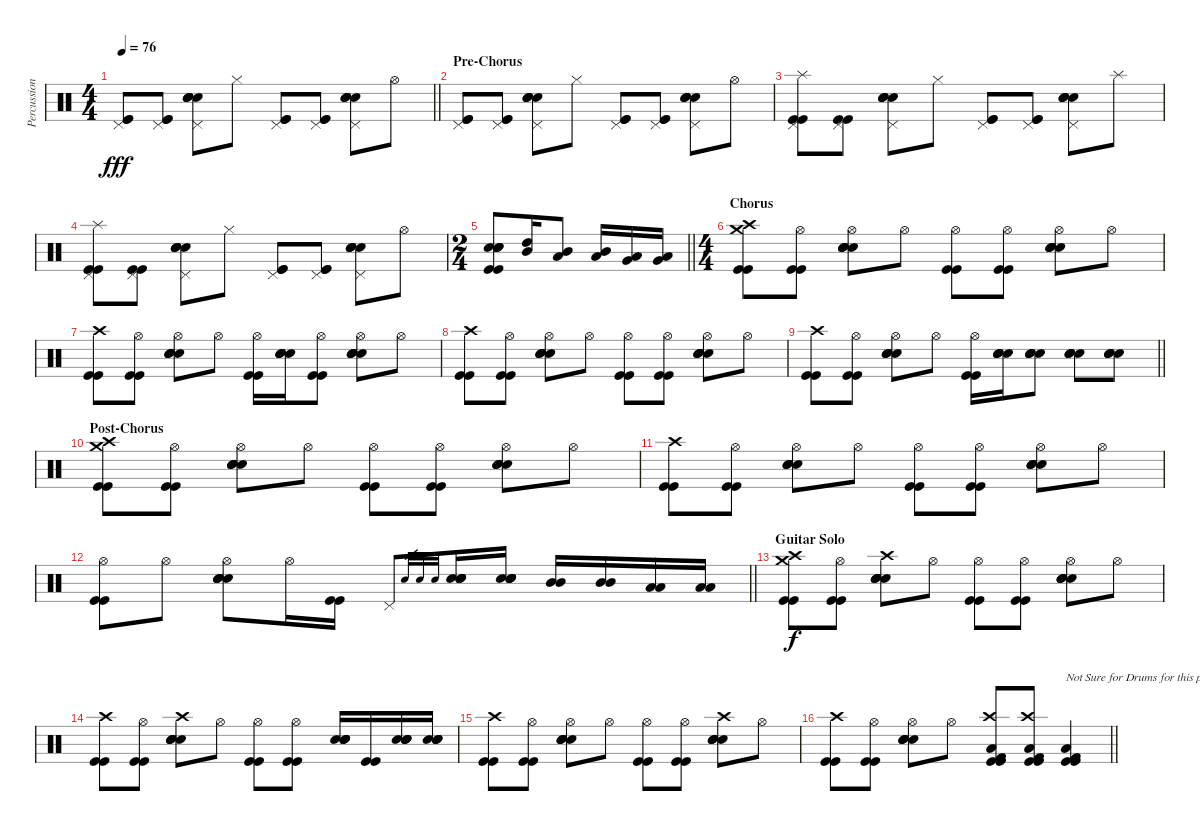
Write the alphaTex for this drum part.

\track ("Percussion" "Percussion") {instrument percussion}
\staff {score}
\articulation defaults
\ts (4 4)
\tempo 76
\clef neutral
\barLineRight lightlight
\ks c
("Pedal Hi-Hat (hit)" "Kick (hit)" "Kick (hit)").8{dy fff} ("Pedal Hi-Hat (hit)" "Kick (hit)" "Kick (hit)").8 ("Pedal Hi-Hat (hit)" "Electric Snare (hit)" "Snare (hit) 2" "Snare (hit) 2" "Electric Snare (hit)").8 "Hi-Hat (closed)".8 ("Pedal Hi-Hat (hit)" "Kick (hit)" "Kick (hit)").8 ("Pedal Hi-Hat (hit)" "Kick (hit)" "Kick (hit)").8 ("Pedal Hi-Hat (hit)" "Electric Snare (hit)" "Snare (hit) 2" "Snare (hit) 2" "Electric Snare (hit)").8 "Hi-Hat (open)".8 |
\section ("" "Pre-Chorus")
("Pedal Hi-Hat (hit)" "Kick (hit)" "Kick (hit)").8 ("Pedal Hi-Hat (hit)" "Kick (hit)" "Kick (hit)").8 ("Pedal Hi-Hat (hit)" "Electric Snare (hit)" "Snare (hit) 2" "Snare (hit) 2" "Electric Snare (hit)").8 "Hi-Hat (closed)".8 ("Pedal Hi-Hat (hit)" "Kick (hit)" "Kick (hit)").8 ("Pedal Hi-Hat (hit)" "Kick (hit)" "Kick (hit)").8 ("Pedal Hi-Hat (hit)" "Electric Snare (hit)" "Snare (hit) 2" "Snare (hit) 2" "Electric Snare (hit)").8 "Hi-Hat (open)".8 |
("Pedal Hi-Hat (hit)" "Splash (hit)" "Kick (hit)" "Kick (hit)").8 ("Pedal Hi-Hat (hit)" "Kick (hit)" "Kick (hit)").8 ("Pedal Hi-Hat (hit)" "Electric Snare (hit)" "Snare (hit) 2" "Snare (hit) 2" "Electric Snare (hit)").8 "Hi-Hat (closed)".8 ("Pedal Hi-Hat (hit)" "Kick (hit)" "Kick (hit)").8 ("Pedal Hi-Hat (hit)" "Kick (hit)" "Kick (hit)").8 ("Pedal Hi-Hat (hit)" "Electric Snare (hit)" "Snare (hit) 2" "Snare (hit) 2" "Electric Snare (hit)").8 "Splash (hit)".8 |
("Pedal Hi-Hat (hit)" "Splash (hit)" "Kick (hit)" "Kick (hit)").8 ("Pedal Hi-Hat (hit)" "Kick (hit)" "Kick (hit)").8 ("Pedal Hi-Hat (hit)" "Electric Snare (hit)" "Snare (hit) 2" "Snare (hit) 2" "Electric Snare (hit)").8 "Hi-Hat (closed)".8 ("Pedal Hi-Hat (hit)" "Kick (hit)" "Kick (hit)").8 ("Pedal Hi-Hat (hit)" "Kick (hit)" "Kick (hit)").8 ("Pedal Hi-Hat (hit)" "Electric Snare (hit)" "Snare (hit) 2" "Snare (hit) 2" "Electric Snare (hit)").8 "Hi-Hat (open)".8 |
\ts (2 4)
\barLineRight lightlight
("Kick (hit)" "Electric Snare (hit)" "Snare (hit) 2" "Snare (hit) 2" "Electric Snare (hit)" "Kick (hit)").8 ("High Tom (hit)" "Mid Tom (hit)").16 ("Mid Tom (hit)" "Low Tom (hit)").8 ("Mid Tom (hit)" "Low Tom (hit)").16 ("Low Tom (hit)" "Very Low Tom (hit)").16 ("Very Low Tom (hit)" "Low Floor Tom (hit)").16 |
\ts (4 4)
\section ("" "Chorus")
("Crash high (hit)" "Crash medium (hit)" "Kick (hit)" "Kick (hit)").8 ("Hi-Hat (open)" "Kick (hit)" "Kick (hit)").8 ("Hi-Hat (open)" "Electric Snare (hit)" "Snare (hit) 2" "Snare (hit) 2" "Electric Snare (hit)").8 "Hi-Hat (open)".8 ("Hi-Hat (open)" "Kick (hit)" "Kick (hit)").8 ("Hi-Hat (open)" "Kick (hit)" "Kick (hit)").8 ("Hi-Hat (open)" "Electric Snare (hit)" "Snare (hit) 2" "Snare (hit) 2" "Electric Snare (hit)").8 "Hi-Hat (open)".8 |
("Crash high (hit)" "Kick (hit)" "Kick (hit)").8 ("Hi-Hat (open)" "Kick (hit)" "Kick (hit)").8 ("Hi-Hat (open)" "Electric Snare (hit)" "Snare (hit) 2" "Snare (hit) 2" "Electric Snare (hit)").8 "Hi-Hat (open)".8 ("Hi-Hat (open)" "Kick (hit)" "Kick (hit)").16 ("Electric Snare (hit)" "Snare (hit) 2" "Snare (hit) 2" "Electric Snare (hit)").16 ("Hi-Hat (open)" "Kick (hit)" "Kick (hit)").8 ("Hi-Hat (open)" "Electric Snare (hit)" "Snare (hit) 2" "Snare (hit) 2" "Electric Snare (hit)").8 "Hi-Hat (open)".8 |
("Crash high (hit)" "Kick (hit)" "Kick (hit)").8 ("Hi-Hat (open)" "Kick (hit)" "Kick (hit)").8 ("Hi-Hat (open)" "Electric Snare (hit)" "Snare (hit) 2" "Snare (hit) 2" "Electric Snare (hit)").8 "Hi-Hat (open)".8 ("Hi-Hat (open)" "Kick (hit)" "Kick (hit)").8 ("Hi-Hat (open)" "Kick (hit)" "Kick (hit)").8 ("Hi-Hat (open)" "Electric Snare (hit)" "Snare (hit) 2" "Snare (hit) 2" "Electric Snare (hit)").8 "Hi-Hat (open)".8 |
\barLineRight lightlight
("Crash high (hit)" "Kick (hit)" "Kick (hit)").8 ("Hi-Hat (open)" "Kick (hit)" "Kick (hit)").8 ("Hi-Hat (open)" "Electric Snare (hit)" "Snare (hit) 2" "Snare (hit) 2" "Electric Snare (hit)").8 "Hi-Hat (open)".8 ("Hi-Hat (open)" "Kick (hit)" "Kick (hit)").16 ("Electric Snare (hit)" "Snare (hit) 2" "Snare (hit) 2" "Electric Snare (hit)").16 ("Electric Snare (hit)" "Snare (hit) 2" "Snare (hit) 2" "Electric Snare (hit)").8 ("Electric Snare (hit)" "Snare (hit) 2" "Snare (hit) 2" "Electric Snare (hit)").8 ("Electric Snare (hit)" "Snare (hit) 2" "Snare (hit) 2" "Electric Snare (hit)").8 |
\section ("" "Post-Chorus")
("Crash high (hit)" "Crash medium (hit)" "Kick (hit)" "Kick (hit)").8 ("Hi-Hat (open)" "Kick (hit)" "Kick (hit)").8 ("Hi-Hat (open)" "Electric Snare (hit)" "Snare (hit) 2" "Snare (hit) 2" "Electric Snare (hit)").8 "Hi-Hat (open)".8 ("Hi-Hat (open)" "Kick (hit)" "Kick (hit)").8 ("Hi-Hat (open)" "Kick (hit)" "Kick (hit)").8 ("Hi-Hat (open)" "Electric Snare (hit)" "Snare (hit) 2" "Snare (hit) 2" "Electric Snare (hit)").8 "Hi-Hat (open)".8 |
("Crash high (hit)" "Kick (hit)" "Kick (hit)").8 ("Hi-Hat (open)" "Kick (hit)" "Kick (hit)").8 ("Hi-Hat (open)" "Electric Snare (hit)" "Snare (hit) 2" "Snare (hit) 2" "Electric Snare (hit)").8 "Hi-Hat (open)".8 ("Hi-Hat (open)" "Kick (hit)" "Kick (hit)").8 ("Hi-Hat (open)" "Kick (hit)" "Kick (hit)").8 ("Hi-Hat (open)" "Electric Snare (hit)" "Snare (hit) 2" "Snare (hit) 2" "Electric Snare (hit)").8 "Hi-Hat (open)".8 |
\barLineRight lightlight
("Hi-Hat (open)" "Kick (hit)" "Kick (hit)").8 "Hi-Hat (open)".8 ("Hi-Hat (open)" "Electric Snare (hit)" "Snare (hit) 2" "Snare (hit) 2" "Electric Snare (hit)").8 "Hi-Hat (open)".16 ("Kick (hit)" "Kick (hit)").16 "Pedal Hi-Hat (hit)".8 "Electric Snare (hit)".32{gr} "Electric Snare (hit)".32{gr} "Snare (hit) 2".32{gr} ("Electric Snare (hit)" "Electric Snare (hit)" "Snare (hit) 2" "Snare (hit) 2" "Electric Snare (hit)").16 ("Electric Snare (hit)" "Electric Snare (hit)" "Snare (hit) 2" "Snare (hit) 2" "Electric Snare (hit)").16 ("Mid Tom (hit)" "Mid Tom (hit)").16 ("Mid Tom (hit)" "Mid Tom (hit)").16 ("Low Tom (hit)" "Low Tom (hit)").16 ("Low Tom (hit)" "Low Tom (hit)").16 |
\section ("" "Guitar Solo")
("Crash high (hit)" "Crash medium (hit)" "Kick (hit)" "Kick (hit)").8{dy f} ("Hi-Hat (open)" "Kick (hit)" "Kick (hit)").8 ("Crash high (hit)" "Electric Snare (hit)" "Snare (hit) 2" "Snare (hit) 2" "Electric Snare (hit)").8 "Hi-Hat (open)".8 ("Hi-Hat (open)" "Kick (hit)" "Kick (hit)").8 ("Hi-Hat (open)" "Kick (hit)" "Kick (hit)").8 ("Hi-Hat (open)" "Electric Snare (hit)" "Snare (hit) 2" "Snare (hit) 2" "Electric Snare (hit)").8 "Hi-Hat (open)".8 |
("Crash high (hit)" "Kick (hit)" "Kick (hit)").8 ("Hi-Hat (open)" "Kick (hit)" "Kick (hit)").8 ("Crash high (hit)" "Electric Snare (hit)" "Snare (hit) 2" "Snare (hit) 2" "Electric Snare (hit)").8 "Hi-Hat (open)".8 ("Hi-Hat (open)" "Kick (hit)" "Kick (hit)").8 ("Hi-Hat (open)" "Kick (hit)" "Kick (hit)").8 ("Electric Snare (hit)" "Snare (hit) 2" "Snare (hit) 2" "Electric Snare (hit)").16 ("Kick (hit)" "Kick (hit)").16 ("Electric Snare (hit)" "Snare (hit) 2" "Snare (hit) 2" "Electric Snare (hit)").16 ("Electric Snare (hit)" "Snare (hit) 2" "Snare (hit) 2" "Electric Snare (hit)").16 |
("Crash high (hit)" "Kick (hit)" "Kick (hit)").8 ("Hi-Hat (open)" "Kick (hit)" "Kick (hit)").8 ("Hi-Hat (open)" "Electric Snare (hit)" "Snare (hit) 2" "Snare (hit) 2" "Electric Snare (hit)").8 "Hi-Hat (open)".8 ("Hi-Hat (open)" "Kick (hit)" "Kick (hit)").8 ("Hi-Hat (open)" "Kick (hit)" "Kick (hit)").8 ("Crash high (hit)" "Electric Snare (hit)" "Snare (hit) 2" "Snare (hit) 2" "Electric Snare (hit)").8 "Hi-Hat (open)".8 |
\barLineRight lightlight
("Crash high (hit)" "Kick (hit)" "Kick (hit)").8 ("Hi-Hat (open)" "Kick (hit)" "Kick (hit)").8 ("Hi-Hat (open)" "Electric Snare (hit)" "Snare (hit) 2" "Snare (hit) 2" "Electric Snare (hit)").8 "Hi-Hat (open)".8 ("Crash high (hit)" "Kick (hit) 2" "Low Floor Tom (hit)" "Kick (hit)" "Kick (hit)").8 ("Crash high (hit)" "Kick (hit) 2" "Low Floor Tom (hit)" "Kick (hit)" "Kick (hit)").8 ("Kick (hit) 2" "Low Floor Tom (hit)" "Kick (hit)" "Kick (hit)").4{txt "Not Sure for Drums for this part...Left it empty.."}
